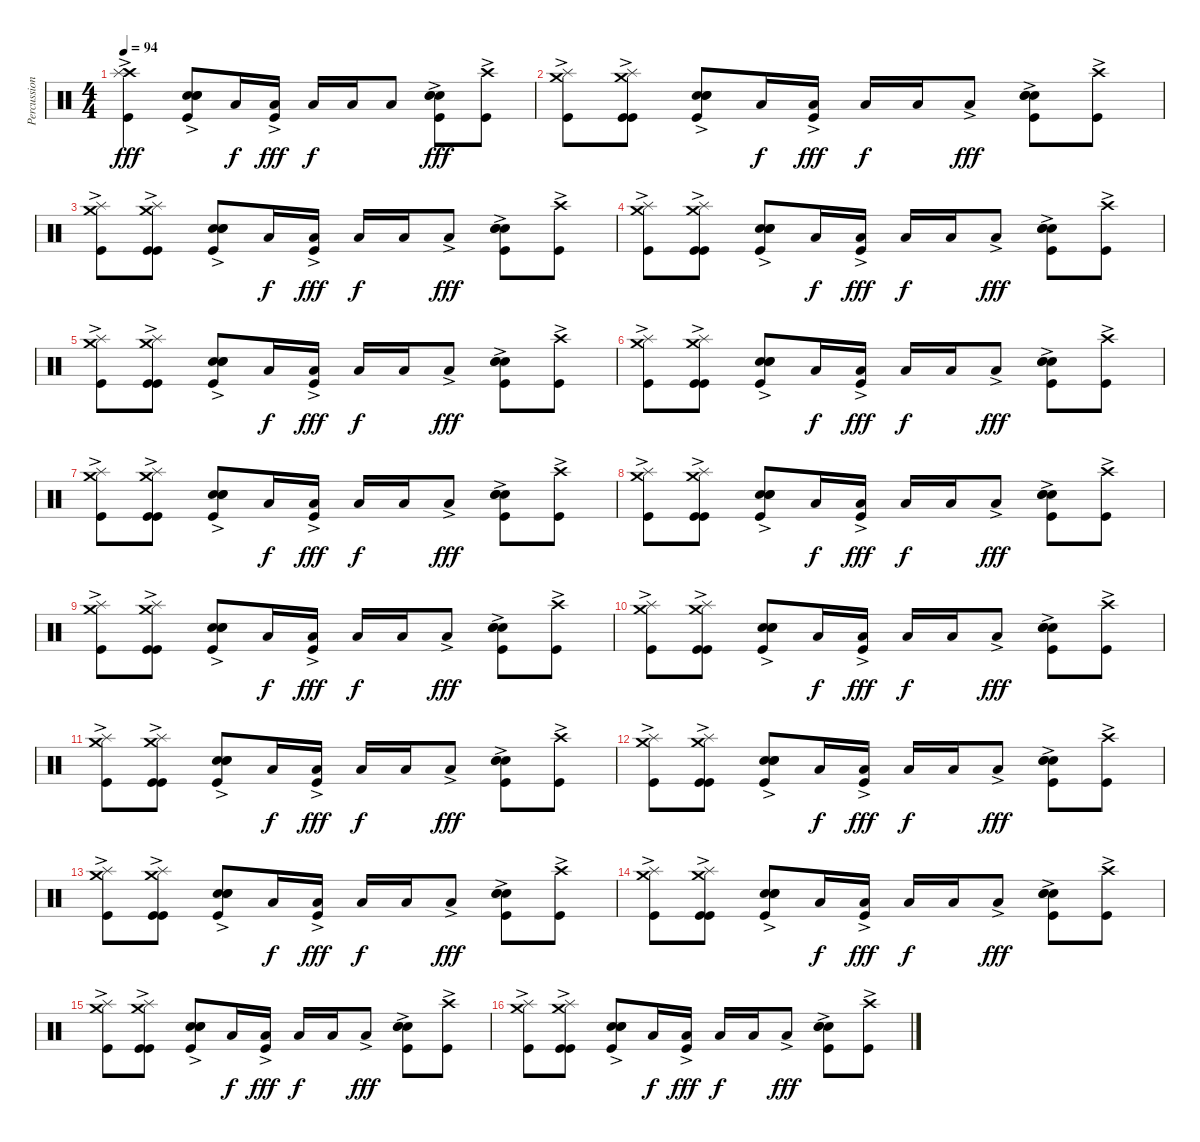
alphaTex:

\track ("Percussion" "Percussion") {instrument percussion}
\staff {score}
\articulation defaults
\ts (4 4)
\tempo 94
\clef neutral
\ks c
("Crash high (hit)" "Splash (hit)" "Kick (hit)"{ac}).4{dy fff volume 9} ("Kick (hit)"{ac} "Snare (hit) 2" "Electric Snare (hit)" "Hand Clap (hit)"{ac}).8 "Low Floor Tom (hit)".16{dy f} ("Kick (hit)"{ac} "Low Floor Tom (hit)").16{dy fff} "Low Floor Tom (hit)".16{dy f} "Low Floor Tom (hit)".16 "Low Floor Tom (hit)".8 ("Hand Clap (hit)" "Electric Snare (hit)" "Snare (hit) 2" "Kick (hit)"{ac}).8{dy fff} ("Crash high (hit)" "Kick (hit)"{ac}).8 |
("Crash medium (hit)"{ac} "Splash (hit)" "Kick (hit)"{ac}).8 ("Kick (hit)"{ac} "Crash medium (hit)" "Splash (hit)" "Kick (hit)"{ac}).8 ("Kick (hit)"{ac} "Snare (hit) 2" "Electric Snare (hit)" "Hand Clap (hit)").8 "Low Floor Tom (hit)".16{dy f} ("Kick (hit)"{ac} "Low Floor Tom (hit)").16{dy fff} "Low Floor Tom (hit)".16{dy f} "Low Floor Tom (hit)".16 "Low Floor Tom (hit)"{ac}.8{dy fff} ("Hand Clap (hit)" "Electric Snare (hit)" "Snare (hit) 2" "Kick (hit)"{ac}).8 ("Kick (hit)"{ac} "Crash high (hit)").8 |
("Crash medium (hit)"{ac} "Splash (hit)" "Kick (hit)"{ac}).8{volume 13} ("Kick (hit)"{ac} "Crash medium (hit)" "Splash (hit)" "Kick (hit)"{ac}).8 ("Kick (hit)"{ac} "Snare (hit) 2" "Electric Snare (hit)" "Hand Clap (hit)").8 "Low Floor Tom (hit)".16{dy f} ("Kick (hit)"{ac} "Low Floor Tom (hit)").16{dy fff} "Low Floor Tom (hit)".16{dy f} "Low Floor Tom (hit)".16 "Low Floor Tom (hit)"{ac}.8{dy fff} ("Hand Clap (hit)" "Electric Snare (hit)" "Snare (hit) 2" "Kick (hit)"{ac}).8 ("Kick (hit)"{ac} "Crash high (hit)").8 |
("Crash medium (hit)"{ac} "Splash (hit)" "Kick (hit)"{ac}).8 ("Kick (hit)"{ac} "Crash medium (hit)" "Splash (hit)" "Kick (hit)"{ac}).8 ("Kick (hit)"{ac} "Snare (hit) 2" "Electric Snare (hit)" "Hand Clap (hit)").8 "Low Floor Tom (hit)".16{dy f} ("Kick (hit)"{ac} "Low Floor Tom (hit)").16{dy fff} "Low Floor Tom (hit)".16{dy f} "Low Floor Tom (hit)".16 "Low Floor Tom (hit)"{ac}.8{dy fff} ("Hand Clap (hit)" "Electric Snare (hit)" "Snare (hit) 2" "Kick (hit)"{ac}).8 ("Kick (hit)"{ac} "Crash high (hit)").8 |
("Crash medium (hit)"{ac} "Splash (hit)" "Kick (hit)"{ac}).8 ("Kick (hit)"{ac} "Crash medium (hit)" "Splash (hit)" "Kick (hit)"{ac}).8 ("Kick (hit)"{ac} "Snare (hit) 2" "Electric Snare (hit)" "Hand Clap (hit)").8 "Low Floor Tom (hit)".16{dy f} ("Kick (hit)"{ac} "Low Floor Tom (hit)").16{dy fff} "Low Floor Tom (hit)".16{dy f} "Low Floor Tom (hit)".16 "Low Floor Tom (hit)"{ac}.8{dy fff} ("Hand Clap (hit)" "Electric Snare (hit)" "Snare (hit) 2" "Kick (hit)"{ac}).8 ("Kick (hit)"{ac} "Crash high (hit)").8 |
("Crash medium (hit)"{ac} "Splash (hit)" "Kick (hit)"{ac}).8 ("Kick (hit)"{ac} "Crash medium (hit)" "Splash (hit)" "Kick (hit)"{ac}).8 ("Kick (hit)"{ac} "Snare (hit) 2" "Electric Snare (hit)" "Hand Clap (hit)").8 "Low Floor Tom (hit)".16{dy f} ("Kick (hit)"{ac} "Low Floor Tom (hit)").16{dy fff} "Low Floor Tom (hit)".16{dy f} "Low Floor Tom (hit)".16 "Low Floor Tom (hit)"{ac}.8{dy fff} ("Hand Clap (hit)" "Electric Snare (hit)" "Snare (hit) 2" "Kick (hit)"{ac}).8 ("Kick (hit)"{ac} "Crash high (hit)").8 |
("Crash medium (hit)"{ac} "Splash (hit)" "Kick (hit)"{ac}).8 ("Kick (hit)"{ac} "Crash medium (hit)" "Splash (hit)" "Kick (hit)"{ac}).8 ("Kick (hit)"{ac} "Snare (hit) 2" "Electric Snare (hit)" "Hand Clap (hit)").8 "Low Floor Tom (hit)".16{dy f} ("Kick (hit)"{ac} "Low Floor Tom (hit)").16{dy fff} "Low Floor Tom (hit)".16{dy f} "Low Floor Tom (hit)".16 "Low Floor Tom (hit)"{ac}.8{dy fff} ("Hand Clap (hit)" "Electric Snare (hit)" "Snare (hit) 2" "Kick (hit)"{ac}).8 ("Kick (hit)"{ac} "Crash high (hit)").8 |
("Crash medium (hit)"{ac} "Splash (hit)" "Kick (hit)"{ac}).8 ("Kick (hit)"{ac} "Crash medium (hit)" "Splash (hit)" "Kick (hit)"{ac}).8 ("Kick (hit)"{ac} "Snare (hit) 2" "Electric Snare (hit)" "Hand Clap (hit)").8 "Low Floor Tom (hit)".16{dy f} ("Kick (hit)"{ac} "Low Floor Tom (hit)").16{dy fff} "Low Floor Tom (hit)".16{dy f} "Low Floor Tom (hit)".16 "Low Floor Tom (hit)"{ac}.8{dy fff} ("Hand Clap (hit)" "Electric Snare (hit)" "Snare (hit) 2" "Kick (hit)"{ac}).8 ("Kick (hit)"{ac} "Crash high (hit)").8 |
("Crash medium (hit)"{ac} "Splash (hit)" "Kick (hit)"{ac}).8 ("Kick (hit)"{ac} "Crash medium (hit)" "Splash (hit)" "Kick (hit)"{ac}).8 ("Kick (hit)"{ac} "Snare (hit) 2" "Electric Snare (hit)" "Hand Clap (hit)").8 "Low Floor Tom (hit)".16{dy f} ("Kick (hit)"{ac} "Low Floor Tom (hit)").16{dy fff} "Low Floor Tom (hit)".16{dy f} "Low Floor Tom (hit)".16 "Low Floor Tom (hit)"{ac}.8{dy fff} ("Hand Clap (hit)" "Electric Snare (hit)" "Snare (hit) 2" "Kick (hit)"{ac}).8 ("Kick (hit)"{ac} "Crash high (hit)").8 |
("Crash medium (hit)"{ac} "Splash (hit)" "Kick (hit)"{ac}).8 ("Kick (hit)"{ac} "Crash medium (hit)" "Splash (hit)" "Kick (hit)"{ac}).8 ("Kick (hit)"{ac} "Snare (hit) 2" "Electric Snare (hit)" "Hand Clap (hit)").8 "Low Floor Tom (hit)".16{dy f} ("Kick (hit)"{ac} "Low Floor Tom (hit)").16{dy fff} "Low Floor Tom (hit)".16{dy f} "Low Floor Tom (hit)".16 "Low Floor Tom (hit)"{ac}.8{dy fff} ("Hand Clap (hit)" "Electric Snare (hit)" "Snare (hit) 2" "Kick (hit)"{ac}).8 ("Kick (hit)"{ac} "Crash high (hit)").8 |
("Crash medium (hit)"{ac} "Splash (hit)" "Kick (hit)"{ac}).8 ("Kick (hit)"{ac} "Crash medium (hit)" "Splash (hit)" "Kick (hit)"{ac}).8 ("Kick (hit)"{ac} "Snare (hit) 2" "Electric Snare (hit)" "Hand Clap (hit)").8 "Low Floor Tom (hit)".16{dy f} ("Kick (hit)"{ac} "Low Floor Tom (hit)").16{dy fff} "Low Floor Tom (hit)".16{dy f} "Low Floor Tom (hit)".16 "Low Floor Tom (hit)"{ac}.8{dy fff} ("Hand Clap (hit)" "Electric Snare (hit)" "Snare (hit) 2" "Kick (hit)"{ac}).8 ("Kick (hit)"{ac} "Crash high (hit)").8 |
("Crash medium (hit)"{ac} "Splash (hit)" "Kick (hit)"{ac}).8 ("Kick (hit)"{ac} "Crash medium (hit)" "Splash (hit)" "Kick (hit)"{ac}).8 ("Kick (hit)"{ac} "Snare (hit) 2" "Electric Snare (hit)" "Hand Clap (hit)").8 "Low Floor Tom (hit)".16{dy f} ("Kick (hit)"{ac} "Low Floor Tom (hit)").16{dy fff} "Low Floor Tom (hit)".16{dy f} "Low Floor Tom (hit)".16 "Low Floor Tom (hit)"{ac}.8{dy fff} ("Hand Clap (hit)" "Electric Snare (hit)" "Snare (hit) 2" "Kick (hit)"{ac}).8 ("Kick (hit)"{ac} "Crash high (hit)").8 |
("Crash medium (hit)"{ac} "Splash (hit)" "Kick (hit)"{ac}).8 ("Kick (hit)"{ac} "Crash medium (hit)" "Splash (hit)" "Kick (hit)"{ac}).8 ("Kick (hit)"{ac} "Snare (hit) 2" "Electric Snare (hit)" "Hand Clap (hit)").8 "Low Floor Tom (hit)".16{dy f} ("Kick (hit)"{ac} "Low Floor Tom (hit)").16{dy fff} "Low Floor Tom (hit)".16{dy f} "Low Floor Tom (hit)".16 "Low Floor Tom (hit)"{ac}.8{dy fff} ("Hand Clap (hit)" "Electric Snare (hit)" "Snare (hit) 2" "Kick (hit)"{ac}).8 ("Kick (hit)"{ac} "Crash high (hit)").8 |
("Crash medium (hit)"{ac} "Splash (hit)" "Kick (hit)"{ac}).8 ("Kick (hit)"{ac} "Crash medium (hit)" "Splash (hit)" "Kick (hit)"{ac}).8 ("Kick (hit)"{ac} "Snare (hit) 2" "Electric Snare (hit)" "Hand Clap (hit)").8 "Low Floor Tom (hit)".16{dy f} ("Kick (hit)"{ac} "Low Floor Tom (hit)").16{dy fff} "Low Floor Tom (hit)".16{dy f} "Low Floor Tom (hit)".16 "Low Floor Tom (hit)"{ac}.8{dy fff} ("Hand Clap (hit)" "Electric Snare (hit)" "Snare (hit) 2" "Kick (hit)"{ac}).8 ("Kick (hit)"{ac} "Crash high (hit)").8 |
("Crash medium (hit)"{ac} "Splash (hit)" "Kick (hit)"{ac}).8 ("Kick (hit)"{ac} "Crash medium (hit)" "Splash (hit)" "Kick (hit)"{ac}).8 ("Kick (hit)"{ac} "Snare (hit) 2" "Electric Snare (hit)" "Hand Clap (hit)").8 "Low Floor Tom (hit)".16{dy f} ("Kick (hit)"{ac} "Low Floor Tom (hit)").16{dy fff} "Low Floor Tom (hit)".16{dy f} "Low Floor Tom (hit)".16 "Low Floor Tom (hit)"{ac}.8{dy fff} ("Hand Clap (hit)" "Electric Snare (hit)" "Snare (hit) 2" "Kick (hit)"{ac}).8 ("Kick (hit)"{ac} "Crash high (hit)").8 |
("Crash medium (hit)"{ac} "Splash (hit)" "Kick (hit)"{ac}).8 ("Kick (hit)"{ac} "Crash medium (hit)" "Splash (hit)" "Kick (hit)"{ac}).8 ("Kick (hit)"{ac} "Snare (hit) 2" "Electric Snare (hit)" "Hand Clap (hit)").8 "Low Floor Tom (hit)".16{dy f} ("Kick (hit)"{ac} "Low Floor Tom (hit)").16{dy fff} "Low Floor Tom (hit)".16{dy f} "Low Floor Tom (hit)".16 "Low Floor Tom (hit)"{ac}.8{dy fff} ("Hand Clap (hit)" "Electric Snare (hit)" "Snare (hit) 2" "Kick (hit)"{ac}).8 ("Kick (hit)"{ac} "Crash high (hit)").8
